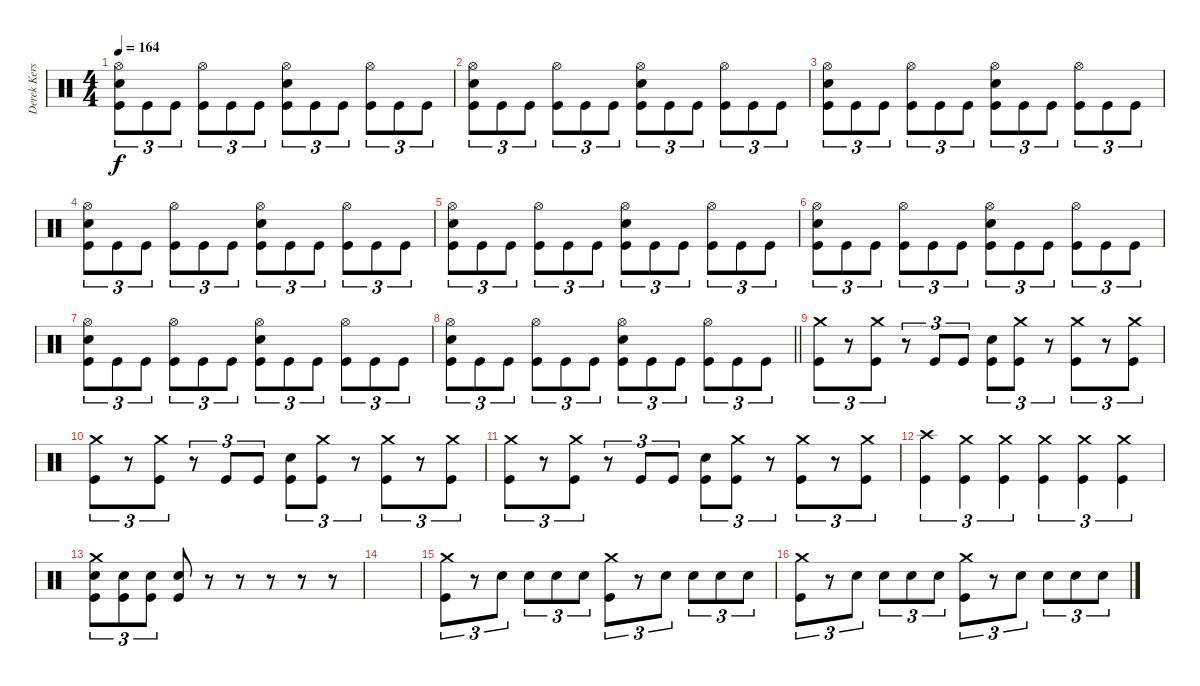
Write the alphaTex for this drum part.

\track ("Derek Kerswill" "Derek Kers") {instrument percussion}
\staff {score}
\articulation defaults
\ts (4 4)
\tempo 164
\clef neutral
\ks c
("Hi-Hat (open)" "Snare (hit) 2" "Kick (hit)").8{tu (3 2) dy f} "Kick (hit)".8{tu (3 2)} "Kick (hit)".8{tu (3 2)} ("Hi-Hat (open)" "Kick (hit)").8{tu (3 2)} "Kick (hit)".8{tu (3 2)} "Kick (hit)".8{tu (3 2)} ("Hi-Hat (open)" "Snare (hit) 2" "Kick (hit)").8{tu (3 2)} "Kick (hit)".8{tu (3 2)} "Kick (hit)".8{tu (3 2)} ("Hi-Hat (open)" "Kick (hit)").8{tu (3 2)} "Kick (hit)".8{tu (3 2)} "Kick (hit)".8{tu (3 2)} |
("Hi-Hat (open)" "Snare (hit) 2" "Kick (hit)").8{tu (3 2)} "Kick (hit)".8{tu (3 2)} "Kick (hit)".8{tu (3 2)} ("Hi-Hat (open)" "Kick (hit)").8{tu (3 2)} "Kick (hit)".8{tu (3 2)} "Kick (hit)".8{tu (3 2)} ("Hi-Hat (open)" "Snare (hit) 2" "Kick (hit)").8{tu (3 2)} "Kick (hit)".8{tu (3 2)} "Kick (hit)".8{tu (3 2)} ("Hi-Hat (open)" "Kick (hit)").8{tu (3 2)} "Kick (hit)".8{tu (3 2)} "Kick (hit)".8{tu (3 2)} |
("Hi-Hat (open)" "Snare (hit) 2" "Kick (hit)").8{tu (3 2)} "Kick (hit)".8{tu (3 2)} "Kick (hit)".8{tu (3 2)} ("Hi-Hat (open)" "Kick (hit)").8{tu (3 2)} "Kick (hit)".8{tu (3 2)} "Kick (hit)".8{tu (3 2)} ("Hi-Hat (open)" "Snare (hit) 2" "Kick (hit)").8{tu (3 2)} "Kick (hit)".8{tu (3 2)} "Kick (hit)".8{tu (3 2)} ("Hi-Hat (open)" "Kick (hit)").8{tu (3 2)} "Kick (hit)".8{tu (3 2)} "Kick (hit)".8{tu (3 2)} |
("Hi-Hat (open)" "Snare (hit) 2" "Kick (hit)").8{tu (3 2)} "Kick (hit)".8{tu (3 2)} "Kick (hit)".8{tu (3 2)} ("Hi-Hat (open)" "Kick (hit)").8{tu (3 2)} "Kick (hit)".8{tu (3 2)} "Kick (hit)".8{tu (3 2)} ("Hi-Hat (open)" "Snare (hit) 2" "Kick (hit)").8{tu (3 2)} "Kick (hit)".8{tu (3 2)} "Kick (hit)".8{tu (3 2)} ("Hi-Hat (open)" "Kick (hit)").8{tu (3 2)} "Kick (hit)".8{tu (3 2)} "Kick (hit)".8{tu (3 2)} |
("Hi-Hat (open)" "Snare (hit) 2" "Kick (hit)").8{tu (3 2)} "Kick (hit)".8{tu (3 2)} "Kick (hit)".8{tu (3 2)} ("Hi-Hat (open)" "Kick (hit)").8{tu (3 2)} "Kick (hit)".8{tu (3 2)} "Kick (hit)".8{tu (3 2)} ("Hi-Hat (open)" "Snare (hit) 2" "Kick (hit)").8{tu (3 2)} "Kick (hit)".8{tu (3 2)} "Kick (hit)".8{tu (3 2)} ("Hi-Hat (open)" "Kick (hit)").8{tu (3 2)} "Kick (hit)".8{tu (3 2)} "Kick (hit)".8{tu (3 2)} |
("Hi-Hat (open)" "Snare (hit) 2" "Kick (hit)").8{tu (3 2)} "Kick (hit)".8{tu (3 2)} "Kick (hit)".8{tu (3 2)} ("Hi-Hat (open)" "Kick (hit)").8{tu (3 2)} "Kick (hit)".8{tu (3 2)} "Kick (hit)".8{tu (3 2)} ("Hi-Hat (open)" "Snare (hit) 2" "Kick (hit)").8{tu (3 2)} "Kick (hit)".8{tu (3 2)} "Kick (hit)".8{tu (3 2)} ("Hi-Hat (open)" "Kick (hit)").8{tu (3 2)} "Kick (hit)".8{tu (3 2)} "Kick (hit)".8{tu (3 2)} |
("Hi-Hat (open)" "Snare (hit) 2" "Kick (hit)").8{tu (3 2)} "Kick (hit)".8{tu (3 2)} "Kick (hit)".8{tu (3 2)} ("Hi-Hat (open)" "Kick (hit)").8{tu (3 2)} "Kick (hit)".8{tu (3 2)} "Kick (hit)".8{tu (3 2)} ("Hi-Hat (open)" "Snare (hit) 2" "Kick (hit)").8{tu (3 2)} "Kick (hit)".8{tu (3 2)} "Kick (hit)".8{tu (3 2)} ("Hi-Hat (open)" "Kick (hit)").8{tu (3 2)} "Kick (hit)".8{tu (3 2)} "Kick (hit)".8{tu (3 2)} |
\barLineRight lightlight
("Hi-Hat (open)" "Snare (hit) 2" "Kick (hit)").8{tu (3 2)} "Kick (hit)".8{tu (3 2)} "Kick (hit)".8{tu (3 2)} ("Hi-Hat (open)" "Kick (hit)").8{tu (3 2)} "Kick (hit)".8{tu (3 2)} "Kick (hit)".8{tu (3 2)} ("Hi-Hat (open)" "Snare (hit) 2" "Kick (hit)").8{tu (3 2)} "Kick (hit)".8{tu (3 2)} "Kick (hit)".8{tu (3 2)} ("Hi-Hat (open)" "Kick (hit)").8{tu (3 2)} "Kick (hit)".8{tu (3 2)} "Kick (hit)".8{tu (3 2)} |
("Crash medium (hit)" "Kick (hit)").8{tu (3 2)} r.8{tu (3 2)} ("Crash medium (hit)" "Kick (hit)").8{tu (3 2)} r.8{tu (3 2)} "Kick (hit)".8{tu (3 2)} "Kick (hit)".8{tu (3 2)} ("Snare (hit) 2" "Kick (hit)").8{tu (3 2)} ("Crash medium (hit)" "Kick (hit)").8{tu (3 2)} r.8{tu (3 2)} ("Crash medium (hit)" "Kick (hit)").8{tu (3 2)} r.8{tu (3 2)} ("Crash medium (hit)" "Kick (hit)").8{tu (3 2)} |
("Crash medium (hit)" "Kick (hit)").8{tu (3 2)} r.8{tu (3 2)} ("Crash medium (hit)" "Kick (hit)").8{tu (3 2)} r.8{tu (3 2)} "Kick (hit)".8{tu (3 2)} "Kick (hit)".8{tu (3 2)} ("Snare (hit) 2" "Kick (hit)").8{tu (3 2)} ("Crash medium (hit)" "Kick (hit)").8{tu (3 2)} r.8{tu (3 2)} ("Crash medium (hit)" "Kick (hit)").8{tu (3 2)} r.8{tu (3 2)} ("Crash medium (hit)" "Kick (hit)").8{tu (3 2)} |
("Crash medium (hit)" "Kick (hit)").8{tu (3 2)} r.8{tu (3 2)} ("Crash medium (hit)" "Kick (hit)").8{tu (3 2)} r.8{tu (3 2)} "Kick (hit)".8{tu (3 2)} "Kick (hit)".8{tu (3 2)} ("Snare (hit) 2" "Kick (hit)").8{tu (3 2)} ("Crash medium (hit)" "Kick (hit)").8{tu (3 2)} r.8{tu (3 2)} ("Crash medium (hit)" "Kick (hit)").8{tu (3 2)} r.8{tu (3 2)} ("Crash medium (hit)" "Kick (hit)").8{tu (3 2)} |
("Crash high (hit)" "Kick (hit)").4{tu (3 2)} ("Crash medium (hit)" "Kick (hit)").4{tu (3 2)} ("Crash medium (hit)" "Kick (hit)").4{tu (3 2)} ("Crash medium (hit)" "Kick (hit)").4{tu (3 2)} ("Crash medium (hit)" "Kick (hit)").4{tu (3 2)} ("Crash medium (hit)" "Kick (hit)").4{tu (3 2)} |
("Crash medium (hit)" "Kick (hit)" "Snare (hit) 2").8{tu (3 2)} ("Kick (hit)" "Snare (hit) 2").8{tu (3 2)} ("Kick (hit)" "Snare (hit) 2").8{tu (3 2)} ("Kick (hit)" "Snare (hit) 2").8 r.8 r.8 r.8 r.8 r.8 |
|
("Crash medium (hit)" "Kick (hit)").8{tu (3 2)} r.8{tu (3 2)} "Snare (hit) 2".8{tu (3 2)} "Snare (hit) 2".8{tu (3 2)} "Snare (hit) 2".8{tu (3 2)} "Snare (hit) 2".8{tu (3 2)} ("Crash medium (hit)" "Kick (hit)").8{tu (3 2)} r.8{tu (3 2)} "Snare (hit) 2".8{tu (3 2)} "Snare (hit) 2".8{tu (3 2)} "Snare (hit) 2".8{tu (3 2)} "Snare (hit) 2".8{tu (3 2)} |
("Crash medium (hit)" "Kick (hit)").8{tu (3 2)} r.8{tu (3 2)} "Snare (hit) 2".8{tu (3 2)} "Snare (hit) 2".8{tu (3 2)} "Snare (hit) 2".8{tu (3 2)} "Snare (hit) 2".8{tu (3 2)} ("Crash medium (hit)" "Kick (hit)").8{tu (3 2)} r.8{tu (3 2)} "Snare (hit) 2".8{tu (3 2)} "Snare (hit) 2".8{tu (3 2)} "Snare (hit) 2".8{tu (3 2)} "Snare (hit) 2".8{tu (3 2)}
